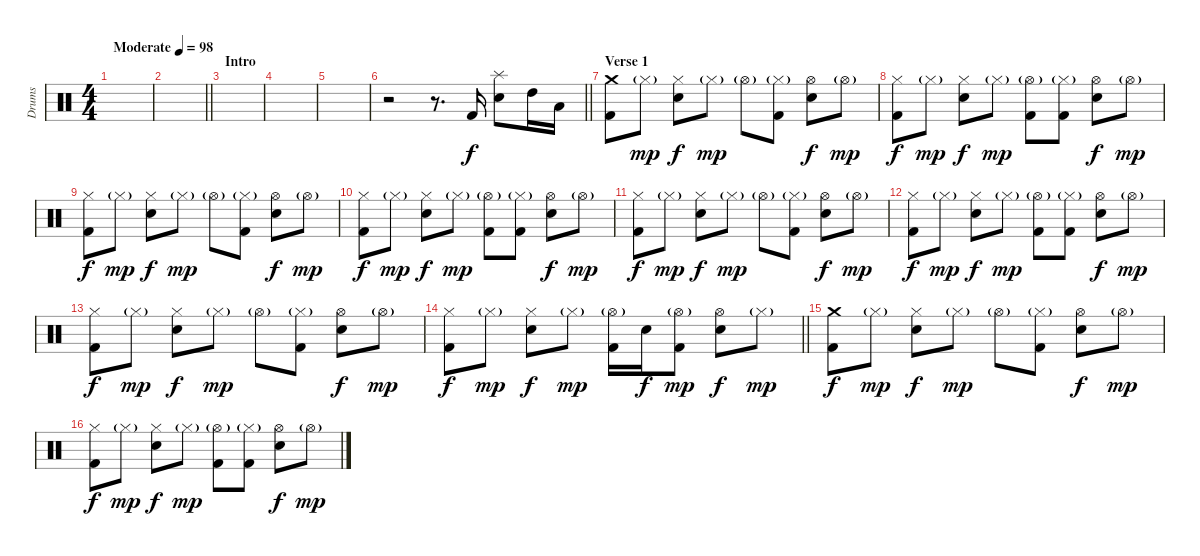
\track ("Drums " "Drums ") {instrument percussion bank 32}
\staff {score}
\articulation defaults
\ts (4 4)
\tempo (98 "Moderate")
\clef neutral
\ks c
|
\barLineRight lightlight
|
\section ("" "Intro")
|
|
|
\barLineRight lightlight
r.2 r.8{d} "Kick (hit) 2".16 ("Splash (hit)" "Electric Snare (hit)").8 "High Tom (hit)".16 "Low Tom (hit)".16 |
\section ("" "Verse 1")
("Crash medium (hit)" "Kick (hit) 2").8 "Hi-Hat (closed)"{g}.8{dy mp} ("Hi-Hat (closed)" "Electric Snare (hit)").8{dy f} "Hi-Hat (closed)"{g}.8{dy mp} "Hi-Hat (open)"{g}.8 ("Hi-Hat (closed)"{g} "Kick (hit) 2").8 ("Hi-Hat (open)" "Electric Snare (hit)").8{dy f} "Hi-Hat (open)"{g}.8{dy mp} |
("Hi-Hat (closed)" "Kick (hit) 2").8{dy f} "Hi-Hat (closed)"{g}.8{dy mp} ("Hi-Hat (closed)" "Electric Snare (hit)").8{dy f} "Hi-Hat (closed)"{g}.8{dy mp} ("Hi-Hat (open)"{g} "Kick (hit) 2").8 ("Hi-Hat (closed)"{g} "Kick (hit) 2").8 ("Hi-Hat (open)" "Electric Snare (hit)").8{dy f} "Hi-Hat (open)"{g}.8{dy mp} |
("Hi-Hat (closed)" "Kick (hit) 2").8{dy f} "Hi-Hat (closed)"{g}.8{dy mp} ("Hi-Hat (closed)" "Electric Snare (hit)").8{dy f} "Hi-Hat (closed)"{g}.8{dy mp} "Hi-Hat (open)"{g}.8 ("Hi-Hat (closed)"{g} "Kick (hit) 2").8 ("Hi-Hat (open)" "Electric Snare (hit)").8{dy f} "Hi-Hat (open)"{g}.8{dy mp} |
("Hi-Hat (closed)" "Kick (hit) 2").8{dy f} "Hi-Hat (closed)"{g}.8{dy mp} ("Hi-Hat (closed)" "Electric Snare (hit)").8{dy f} "Hi-Hat (closed)"{g}.8{dy mp} ("Hi-Hat (open)"{g} "Kick (hit) 2").8 ("Hi-Hat (closed)"{g} "Kick (hit) 2").8 ("Hi-Hat (open)" "Electric Snare (hit)").8{dy f} "Hi-Hat (open)"{g}.8{dy mp} |
("Hi-Hat (closed)" "Kick (hit) 2").8{dy f} "Hi-Hat (closed)"{g}.8{dy mp} ("Hi-Hat (closed)" "Electric Snare (hit)").8{dy f} "Hi-Hat (closed)"{g}.8{dy mp} "Hi-Hat (open)"{g}.8 ("Hi-Hat (closed)"{g} "Kick (hit) 2").8 ("Hi-Hat (open)" "Electric Snare (hit)").8{dy f} "Hi-Hat (open)"{g}.8{dy mp} |
("Hi-Hat (closed)" "Kick (hit) 2").8{dy f} "Hi-Hat (closed)"{g}.8{dy mp} ("Hi-Hat (closed)" "Electric Snare (hit)").8{dy f} "Hi-Hat (closed)"{g}.8{dy mp} ("Hi-Hat (open)"{g} "Kick (hit) 2").8 ("Hi-Hat (closed)"{g} "Kick (hit) 2").8 ("Hi-Hat (open)" "Electric Snare (hit)").8{dy f} "Hi-Hat (open)"{g}.8{dy mp} |
("Hi-Hat (closed)" "Kick (hit) 2").8{dy f} "Hi-Hat (closed)"{g}.8{dy mp} ("Hi-Hat (closed)" "Electric Snare (hit)").8{dy f} "Hi-Hat (closed)"{g}.8{dy mp} "Hi-Hat (open)"{g}.8 ("Hi-Hat (closed)"{g} "Kick (hit) 2").8 ("Hi-Hat (open)" "Electric Snare (hit)").8{dy f} "Hi-Hat (open)"{g}.8{dy mp} |
\barLineRight lightlight
("Hi-Hat (closed)" "Kick (hit) 2").8{dy f} "Hi-Hat (closed)"{g}.8{dy mp} ("Hi-Hat (closed)" "Electric Snare (hit)").8{dy f} "Hi-Hat (closed)"{g}.8{dy mp} ("Hi-Hat (open)"{g} "Kick (hit) 2").16 "Electric Snare (hit)".16{dy f} ("Hi-Hat (open)"{g} "Kick (hit) 2").8{dy mp} ("Hi-Hat (open)" "Electric Snare (hit)").8{dy f} "Hi-Hat (closed)"{g}.8{dy mp} |
("Crash medium (hit)" "Kick (hit) 2").8{dy f} "Hi-Hat (closed)"{g}.8{dy mp} ("Hi-Hat (closed)" "Electric Snare (hit)").8{dy f} "Hi-Hat (closed)"{g}.8{dy mp} "Hi-Hat (open)"{g}.8 ("Hi-Hat (closed)"{g} "Kick (hit) 2").8 ("Hi-Hat (open)" "Electric Snare (hit)").8{dy f} "Hi-Hat (open)"{g}.8{dy mp} |
("Hi-Hat (closed)" "Kick (hit) 2").8{dy f} "Hi-Hat (closed)"{g}.8{dy mp} ("Hi-Hat (closed)" "Electric Snare (hit)").8{dy f} "Hi-Hat (closed)"{g}.8{dy mp} ("Hi-Hat (open)"{g} "Kick (hit) 2").8 ("Hi-Hat (closed)"{g} "Kick (hit) 2").8 ("Hi-Hat (open)" "Electric Snare (hit)").8{dy f} "Hi-Hat (open)"{g}.8{dy mp}
